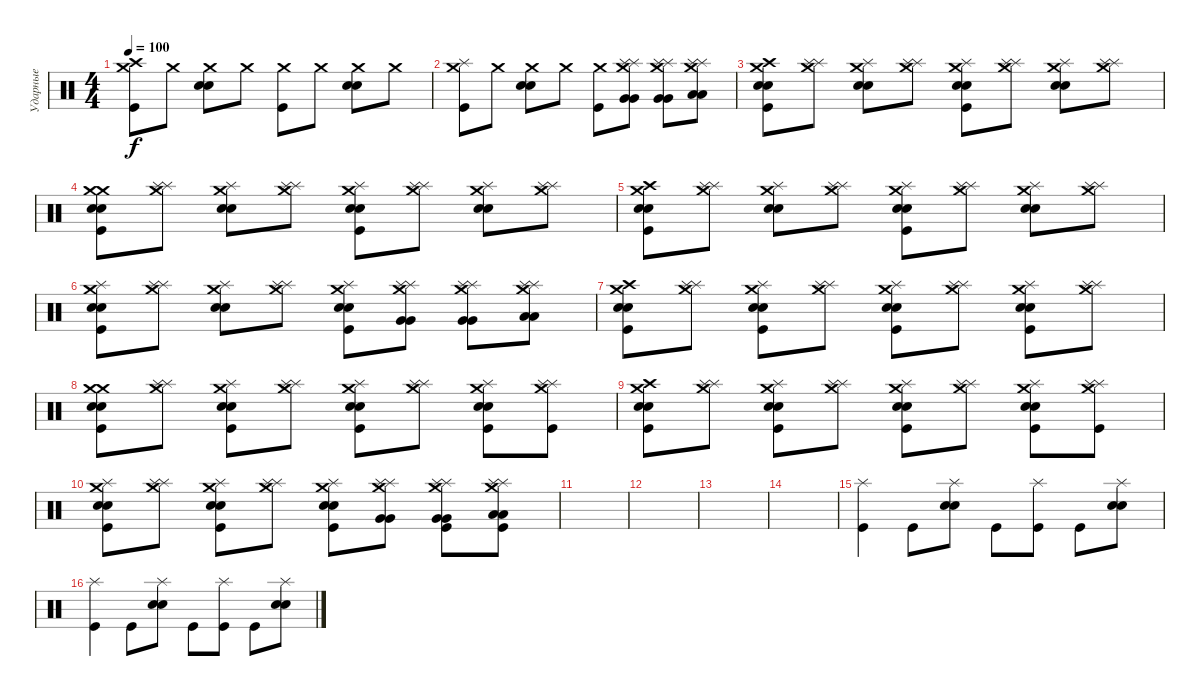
\track ("Ударные" "Ударные") {instrument percussion}
\staff {score}
\articulation defaults
\ts (4 4)
\tempo 100
\clef neutral
\ks c
("Crash medium (hit)" "Crash high (hit)" "Kick (hit)").8{dy f} "Crash medium (hit)".8 ("Crash medium (hit)" "Snare (hit) 2" "Snare (hit) 2").8 "Crash medium (hit)".8 ("Crash medium (hit)" "Kick (hit)").8 "Crash medium (hit)".8 ("Crash medium (hit)" "Snare (hit) 2" "Snare (hit) 2").8 "Crash medium (hit)".8 |
("Crash medium (hit)" "Splash (hit)" "Kick (hit)").8 "Crash medium (hit)".8 ("Crash medium (hit)" "Snare (hit) 2" "Snare (hit) 2").8 "Crash medium (hit)".8 ("Crash medium (hit)" "Kick (hit)").8 ("Crash medium (hit)" "Splash (hit)" "Splash (hit)" "Very Low Tom (hit)" "Very Low Tom (hit)").8 ("Crash medium (hit)" "Splash (hit)" "Splash (hit)" "Very Low Tom (hit)" "Very Low Tom (hit)").8 ("Crash medium (hit)" "Splash (hit)" "Splash (hit)" "Low Floor Tom (hit)" "Low Floor Tom (hit)").8 |
("Crash medium (hit)" "Crash high (hit)" "Snare (hit) 2" "Snare (hit) 2" "Kick (hit)").8 ("Crash medium (hit)" "Splash (hit)" "Splash (hit)").8 ("Crash medium (hit)" "Splash (hit)" "Snare (hit) 2" "Snare (hit) 2").8 ("Crash medium (hit)" "Splash (hit)" "Splash (hit)").8 ("Crash medium (hit)" "Splash (hit)" "Snare (hit) 2" "Snare (hit) 2" "Kick (hit)").8 ("Crash medium (hit)" "Splash (hit)" "Splash (hit)").8 ("Crash medium (hit)" "Splash (hit)" "Snare (hit) 2" "Snare (hit) 2").8 ("Crash medium (hit)" "Splash (hit)" "Splash (hit)").8 |
("Crash medium (hit)" "Crash medium (hit)" "Snare (hit) 2" "Snare (hit) 2" "Kick (hit)").8 ("Crash medium (hit)" "Splash (hit)" "Splash (hit)").8 ("Crash medium (hit)" "Splash (hit)" "Snare (hit) 2" "Snare (hit) 2").8 ("Crash medium (hit)" "Splash (hit)" "Splash (hit)").8 ("Crash medium (hit)" "Splash (hit)" "Snare (hit) 2" "Snare (hit) 2" "Kick (hit)").8 ("Crash medium (hit)" "Splash (hit)" "Splash (hit)").8 ("Crash medium (hit)" "Splash (hit)" "Snare (hit) 2" "Snare (hit) 2").8 ("Crash medium (hit)" "Splash (hit)" "Splash (hit)").8 |
("Crash medium (hit)" "Crash high (hit)" "Snare (hit) 2" "Snare (hit) 2" "Kick (hit)").8 ("Crash medium (hit)" "Splash (hit)" "Splash (hit)").8 ("Crash medium (hit)" "Splash (hit)" "Snare (hit) 2" "Snare (hit) 2").8 ("Crash medium (hit)" "Splash (hit)" "Splash (hit)").8 ("Crash medium (hit)" "Splash (hit)" "Snare (hit) 2" "Snare (hit) 2" "Kick (hit)").8 ("Crash medium (hit)" "Splash (hit)" "Splash (hit)").8 ("Crash medium (hit)" "Splash (hit)" "Snare (hit) 2" "Snare (hit) 2").8 ("Crash medium (hit)" "Splash (hit)" "Splash (hit)").8 |
("Crash medium (hit)" "Splash (hit)" "Snare (hit) 2" "Snare (hit) 2" "Kick (hit)").8 ("Crash medium (hit)" "Splash (hit)" "Splash (hit)").8 ("Crash medium (hit)" "Splash (hit)" "Snare (hit) 2" "Snare (hit) 2").8 ("Crash medium (hit)" "Splash (hit)" "Splash (hit)").8 ("Crash medium (hit)" "Splash (hit)" "Snare (hit) 2" "Snare (hit) 2" "Kick (hit)").8 ("Crash medium (hit)" "Splash (hit)" "Splash (hit)" "Very Low Tom (hit)" "Very Low Tom (hit)").8 ("Crash medium (hit)" "Splash (hit)" "Splash (hit)" "Very Low Tom (hit)" "Very Low Tom (hit)").8 ("Crash medium (hit)" "Splash (hit)" "Splash (hit)" "Low Floor Tom (hit)" "Low Floor Tom (hit)").8 |
("Crash medium (hit)" "Crash high (hit)" "Snare (hit) 2" "Snare (hit) 2" "Kick (hit)").8 ("Crash medium (hit)" "Splash (hit)" "Splash (hit)").8 ("Crash medium (hit)" "Splash (hit)" "Snare (hit) 2" "Snare (hit) 2" "Kick (hit)").8 ("Crash medium (hit)" "Splash (hit)" "Splash (hit)").8 ("Crash medium (hit)" "Splash (hit)" "Snare (hit) 2" "Snare (hit) 2" "Kick (hit)").8 ("Crash medium (hit)" "Splash (hit)" "Splash (hit)").8 ("Crash medium (hit)" "Splash (hit)" "Snare (hit) 2" "Snare (hit) 2" "Kick (hit)").8 ("Crash medium (hit)" "Splash (hit)" "Splash (hit)").8 |
("Crash medium (hit)" "Crash medium (hit)" "Snare (hit) 2" "Snare (hit) 2" "Kick (hit)").8 ("Crash medium (hit)" "Splash (hit)" "Splash (hit)").8 ("Crash medium (hit)" "Splash (hit)" "Snare (hit) 2" "Snare (hit) 2" "Kick (hit)").8 ("Crash medium (hit)" "Splash (hit)" "Splash (hit)").8 ("Crash medium (hit)" "Splash (hit)" "Snare (hit) 2" "Snare (hit) 2" "Kick (hit)").8 ("Crash medium (hit)" "Splash (hit)" "Splash (hit)").8 ("Crash medium (hit)" "Splash (hit)" "Snare (hit) 2" "Snare (hit) 2" "Kick (hit)").8 ("Crash medium (hit)" "Splash (hit)" "Splash (hit)" "Kick (hit)").8 |
("Crash medium (hit)" "Crash high (hit)" "Snare (hit) 2" "Snare (hit) 2" "Kick (hit)").8 ("Crash medium (hit)" "Splash (hit)" "Splash (hit)").8 ("Crash medium (hit)" "Splash (hit)" "Snare (hit) 2" "Snare (hit) 2" "Kick (hit)").8 ("Crash medium (hit)" "Splash (hit)" "Splash (hit)").8 ("Crash medium (hit)" "Splash (hit)" "Snare (hit) 2" "Snare (hit) 2" "Kick (hit)").8 ("Crash medium (hit)" "Splash (hit)" "Splash (hit)").8 ("Crash medium (hit)" "Splash (hit)" "Snare (hit) 2" "Snare (hit) 2" "Kick (hit)").8 ("Crash medium (hit)" "Splash (hit)" "Splash (hit)" "Kick (hit)").8 |
("Crash medium (hit)" "Splash (hit)" "Snare (hit) 2" "Snare (hit) 2" "Kick (hit)").8 ("Crash medium (hit)" "Splash (hit)" "Splash (hit)").8 ("Crash medium (hit)" "Splash (hit)" "Snare (hit) 2" "Snare (hit) 2" "Kick (hit)").8 ("Crash medium (hit)" "Splash (hit)" "Splash (hit)").8 ("Crash medium (hit)" "Splash (hit)" "Snare (hit) 2" "Snare (hit) 2" "Kick (hit)").8 ("Crash medium (hit)" "Splash (hit)" "Splash (hit)" "Very Low Tom (hit)" "Very Low Tom (hit)").8 ("Crash medium (hit)" "Splash (hit)" "Splash (hit)" "Very Low Tom (hit)" "Very Low Tom (hit)" "Kick (hit)").8 ("Crash medium (hit)" "Splash (hit)" "Splash (hit)" "Low Floor Tom (hit)" "Low Floor Tom (hit)" "Kick (hit)").8 |
|
|
|
|
("Splash (hit)" "Kick (hit)").4 "Kick (hit)".8 ("Splash (hit)" "Snare (hit) 2" "Snare (hit) 2").8 "Kick (hit)".8 ("Splash (hit)" "Kick (hit)").8 "Kick (hit)".8 ("Splash (hit)" "Electric Snare (hit)" "Electric Snare (hit)").8 |
("Splash (hit)" "Kick (hit)").4 "Kick (hit)".8 ("Splash (hit)" "Snare (hit) 2" "Snare (hit) 2").8 "Kick (hit)".8 ("Splash (hit)" "Kick (hit)").8 "Kick (hit)".8 ("Splash (hit)" "Electric Snare (hit)" "Electric Snare (hit)").8
